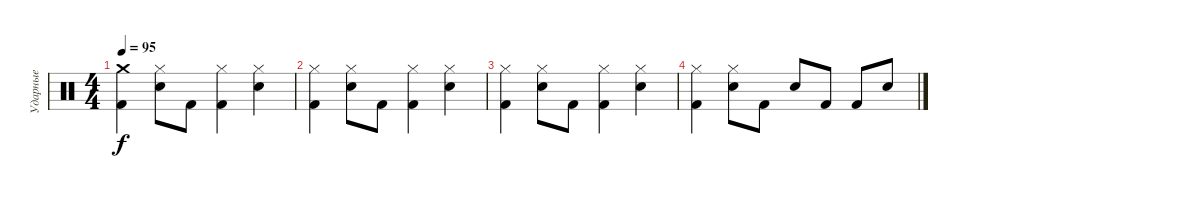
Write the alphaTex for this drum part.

\track ("Ударные" "Ударные") {instrument percussion}
\staff {score}
\articulation defaults
\ts (4 4)
\tempo 95
\clef neutral
\ks c
("Crash medium (hit)" "Kick (hit) 2").4{dy f} ("Hi-Hat (closed)" "Snare (hit) 2").8 "Kick (hit) 2".8 ("Hi-Hat (closed)" "Kick (hit) 2").4 ("Hi-Hat (closed)" "Snare (hit) 2").4 |
("Hi-Hat (closed)" "Kick (hit) 2").4 ("Hi-Hat (closed)" "Snare (hit) 2").8 "Kick (hit) 2".8 ("Hi-Hat (closed)" "Kick (hit) 2").4 ("Hi-Hat (closed)" "Snare (hit) 2").4 |
("Hi-Hat (closed)" "Kick (hit) 2").4 ("Hi-Hat (closed)" "Snare (hit) 2").8 "Kick (hit) 2".8 ("Hi-Hat (closed)" "Kick (hit) 2").4 ("Hi-Hat (closed)" "Snare (hit) 2").4 |
("Hi-Hat (closed)" "Kick (hit) 2").4 ("Hi-Hat (closed)" "Snare (hit) 2").8 "Kick (hit) 2".8 "Snare (hit) 2".8 "Kick (hit) 2".8 "Kick (hit) 2".8 "Snare (hit) 2".8
